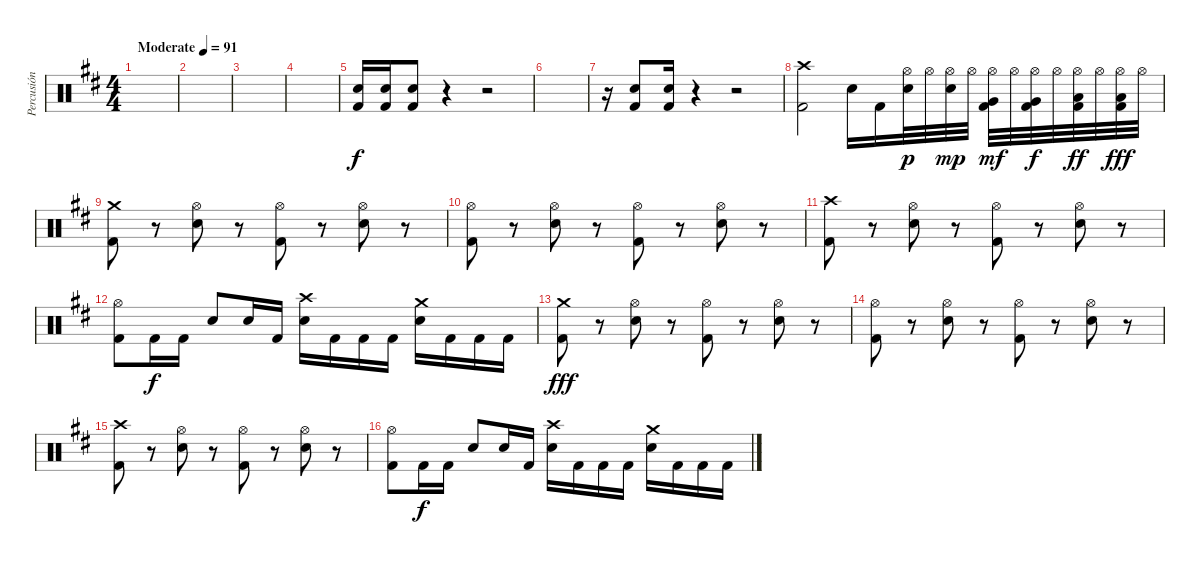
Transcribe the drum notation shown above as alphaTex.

\track ("Percusión" "Percusión") {instrument percussion}
\staff {score}
\articulation defaults
\ts (4 4)
\tempo (91 "Moderate")
\clef neutral
\ks d
|
|
|
|
("Electric Snare (hit)" "Kick (hit) 2").16 ("Electric Snare (hit)" "Kick (hit) 2").16 ("Electric Snare (hit)" "Kick (hit) 2").8 r.4 r.2 |
|
r.16 ("Electric Snare (hit)" "Kick (hit) 2").8 ("Electric Snare (hit)" "Kick (hit) 2").16 r.4 r.2 |
("Crash high (hit)" "Kick (hit) 2").2 "Electric Snare (hit)".16 "Kick (hit) 2".16 ("Hi-Hat (open)" "Electric Snare (hit)").32{dy p} "Hi-Hat (open)".32 ("Hi-Hat (open)" "Electric Snare (hit)").32{dy mp} "Hi-Hat (open)".32 ("Hi-Hat (open)" "Very Low Tom (hit)" "Kick (hit) 2").32{dy mf} "Hi-Hat (open)".32 ("Hi-Hat (open)" "Very Low Tom (hit)" "Kick (hit) 2").32{dy f} "Hi-Hat (open)".32 ("Hi-Hat (open)" "Low Floor Tom (hit)" "Kick (hit) 2").32{dy ff} "Hi-Hat (open)".32 ("Hi-Hat (open)" "Low Floor Tom (hit)" "Kick (hit) 2").32{dy fff} "Hi-Hat (open)".32 |
("Crash medium (hit)" "Kick (hit) 2").8 r.8 ("Hi-Hat (open)" "Electric Snare (hit)").8 r.8 ("Hi-Hat (open)" "Kick (hit) 2").8 r.8 ("Hi-Hat (open)" "Electric Snare (hit)").8 r.8 |
("Hi-Hat (open)" "Kick (hit) 2").8 r.8 ("Hi-Hat (open)" "Electric Snare (hit)").8 r.8 ("Hi-Hat (open)" "Kick (hit) 2").8 r.8 ("Hi-Hat (open)" "Electric Snare (hit)").8 r.8 |
("Crash high (hit)" "Kick (hit) 2").8 r.8 ("Hi-Hat (open)" "Electric Snare (hit)").8 r.8 ("Hi-Hat (open)" "Kick (hit) 2").8 r.8 ("Hi-Hat (open)" "Electric Snare (hit)").8 r.8 |
("Hi-Hat (open)" "Kick (hit) 2").8 "Kick (hit) 2".16{dy f} "Kick (hit) 2".16 "Electric Snare (hit)".8 "Electric Snare (hit)".16 "Kick (hit) 2".16 ("Crash high (hit)" "Electric Snare (hit)").16 "Kick (hit) 2".16 "Kick (hit) 2".16 "Kick (hit) 2".16 ("Crash medium (hit)" "Electric Snare (hit)").16 "Kick (hit) 2".16 "Kick (hit) 2".16 "Kick (hit) 2".16 |
("Crash medium (hit)" "Kick (hit) 2").8{dy fff} r.8 ("Hi-Hat (open)" "Electric Snare (hit)").8 r.8 ("Hi-Hat (open)" "Kick (hit) 2").8 r.8 ("Hi-Hat (open)" "Electric Snare (hit)").8 r.8 |
("Hi-Hat (open)" "Kick (hit) 2").8 r.8 ("Hi-Hat (open)" "Electric Snare (hit)").8 r.8 ("Hi-Hat (open)" "Kick (hit) 2").8 r.8 ("Hi-Hat (open)" "Electric Snare (hit)").8 r.8 |
("Crash high (hit)" "Kick (hit) 2").8 r.8 ("Hi-Hat (open)" "Electric Snare (hit)").8 r.8 ("Hi-Hat (open)" "Kick (hit) 2").8 r.8 ("Hi-Hat (open)" "Electric Snare (hit)").8 r.8 |
("Hi-Hat (open)" "Kick (hit) 2").8 "Kick (hit) 2".16{dy f} "Kick (hit) 2".16 "Electric Snare (hit)".8 "Electric Snare (hit)".16 "Kick (hit) 2".16 ("Crash high (hit)" "Electric Snare (hit)").16 "Kick (hit) 2".16 "Kick (hit) 2".16 "Kick (hit) 2".16 ("Crash medium (hit)" "Electric Snare (hit)").16 "Kick (hit) 2".16 "Kick (hit) 2".16 "Kick (hit) 2".16
